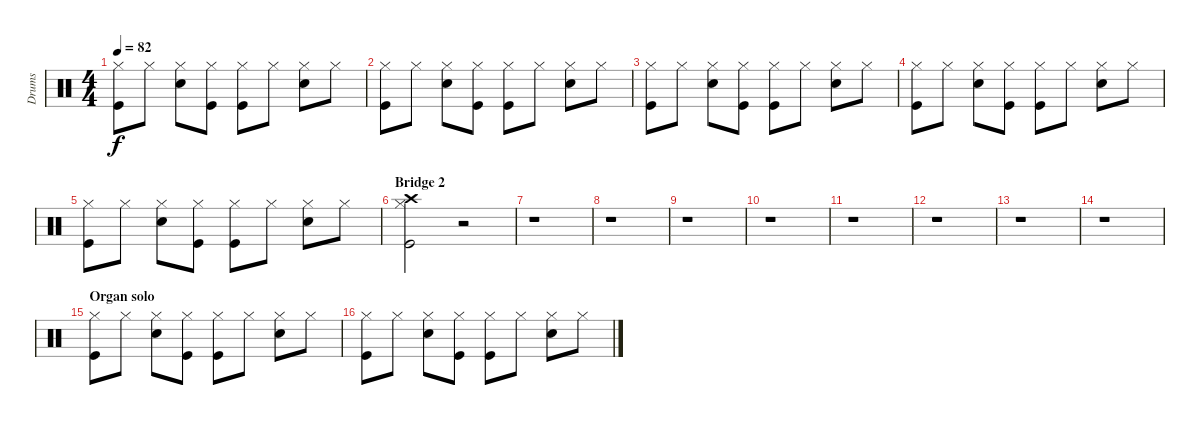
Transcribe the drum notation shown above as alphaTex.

\track ("Drums" "Drums") {instrument percussion}
\staff {score}
\articulation defaults
\ts (4 4)
\tempo 82
\clef neutral
\ks c
("Hi-Hat (closed)" "Kick (hit)").8{dy f} "Hi-Hat (closed)".8 ("Hi-Hat (closed)" "Electric Snare (hit)").8 ("Hi-Hat (closed)" "Kick (hit)").8 ("Hi-Hat (closed)" "Kick (hit)").8 "Hi-Hat (closed)".8 ("Hi-Hat (closed)" "Electric Snare (hit)").8 "Hi-Hat (closed)".8 |
("Hi-Hat (closed)" "Kick (hit)").8 "Hi-Hat (closed)".8 ("Hi-Hat (closed)" "Electric Snare (hit)").8 ("Hi-Hat (closed)" "Kick (hit)").8 ("Hi-Hat (closed)" "Kick (hit)").8 "Hi-Hat (closed)".8 ("Hi-Hat (closed)" "Electric Snare (hit)").8 "Hi-Hat (closed)".8 |
("Hi-Hat (closed)" "Kick (hit)").8 "Hi-Hat (closed)".8 ("Hi-Hat (closed)" "Electric Snare (hit)").8 ("Hi-Hat (closed)" "Kick (hit)").8 ("Hi-Hat (closed)" "Kick (hit)").8 "Hi-Hat (closed)".8 ("Hi-Hat (closed)" "Electric Snare (hit)").8 "Hi-Hat (closed)".8 |
("Hi-Hat (closed)" "Kick (hit)").8 "Hi-Hat (closed)".8 ("Hi-Hat (closed)" "Electric Snare (hit)").8 ("Hi-Hat (closed)" "Kick (hit)").8 ("Hi-Hat (closed)" "Kick (hit)").8 "Hi-Hat (closed)".8 ("Hi-Hat (closed)" "Electric Snare (hit)").8 "Hi-Hat (closed)".8 |
("Hi-Hat (closed)" "Kick (hit)").8 "Hi-Hat (closed)".8 ("Hi-Hat (closed)" "Electric Snare (hit)").8 ("Hi-Hat (closed)" "Kick (hit)").8 ("Hi-Hat (closed)" "Kick (hit)").8 "Hi-Hat (closed)".8 ("Hi-Hat (closed)" "Electric Snare (hit)").8 "Hi-Hat (closed)".8 |
\section ("" "Bridge 2")
("Hi-Hat (closed)" "Crash high (hit)" "Kick (hit)").2 r.2 |
r.1 |
r.1 |
r.1 |
r.1 |
r.1 |
r.1 |
r.1 |
r.1 |
\section ("" "Organ solo")
("Hi-Hat (closed)" "Kick (hit)").8 "Hi-Hat (closed)".8 ("Hi-Hat (closed)" "Electric Snare (hit)").8 ("Hi-Hat (closed)" "Kick (hit)").8 ("Hi-Hat (closed)" "Kick (hit)").8 "Hi-Hat (closed)".8 ("Hi-Hat (closed)" "Electric Snare (hit)").8 "Hi-Hat (closed)".8 |
("Hi-Hat (closed)" "Kick (hit)").8 "Hi-Hat (closed)".8 ("Hi-Hat (closed)" "Electric Snare (hit)").8 ("Hi-Hat (closed)" "Kick (hit)").8 ("Hi-Hat (closed)" "Kick (hit)").8 "Hi-Hat (closed)".8 ("Hi-Hat (closed)" "Electric Snare (hit)").8 "Hi-Hat (closed)".8
